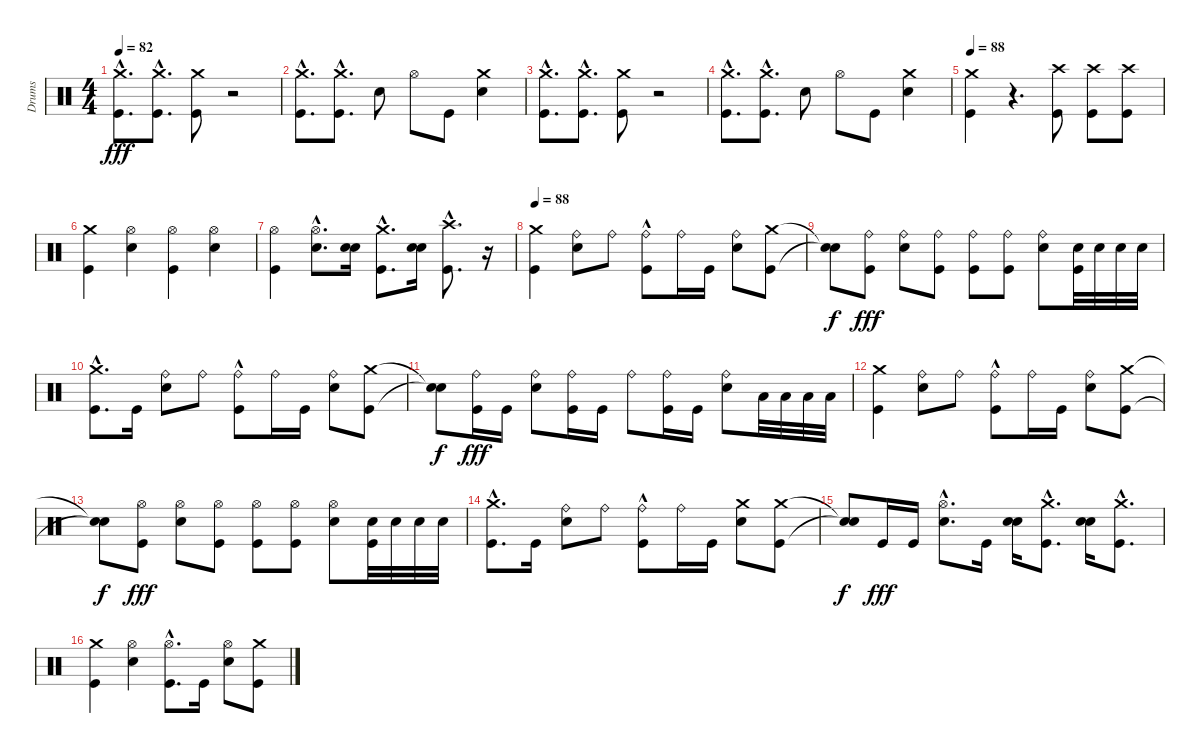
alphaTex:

\track ("Drums" "Drums") {instrument percussion}
\staff {score}
\articulation defaults
\ts (4 4)
\tempo 82
\clef neutral
\ks c
("Kick (hit)"{hac} "Crash medium (hit)"{hac}).8{d dy fff} ("Kick (hit)"{hac} "Crash medium (hit)"{hac}).8{d} ("Kick (hit)" "Crash medium (hit)").8 r.2 |
("Kick (hit)"{hac} "Crash medium (hit)"{hac}).8{d} ("Kick (hit)" "Crash medium (hit)"{hac}).8{d} "Electric Snare (hit)".8 "Hi-Hat (open)".8 "Kick (hit)".8 ("Crash medium (hit)" "Electric Snare (hit)").4 |
("Kick (hit)"{hac} "Crash medium (hit)"{hac}).8{d} ("Kick (hit)"{hac} "Crash medium (hit)"{hac}).8{d} ("Kick (hit)" "Crash medium (hit)").8 r.2 |
("Kick (hit)"{hac} "Crash medium (hit)"{hac}).8{d} ("Kick (hit)" "Crash medium (hit)"{hac}).8{d} "Electric Snare (hit)".8 "Hi-Hat (open)".8 "Kick (hit)".8 ("Crash medium (hit)" "Electric Snare (hit)").4 |
\tempo 88
("Kick (hit)" "Crash medium (hit)").4 r.4{d} ("Crash high (hit)" "Kick (hit)").8 ("Crash high (hit)" "Kick (hit)").8 ("Crash high (hit)" "Kick (hit)").8 |
("Kick (hit)" "Crash medium (hit)").4 ("Electric Snare (hit)" "Hi-Hat (open)").4 ("Kick (hit)" "Hi-Hat (open)").4 ("Electric Snare (hit)" "Hi-Hat (open)").4 |
("Hi-Hat (open)" "Kick (hit)").4 ("Hi-Hat (open)" "Electric Snare (hit)"{hac}).8{d} ("Electric Snare (hit)" "Electric Snare (hit)").16 ("Crash medium (hit)"{hac} "Kick (hit)"{hac}).8{d} ("Electric Snare (hit)" "Electric Snare (hit)").16 ("Crash high (hit)"{hac} "Kick (hit)"{hac}).8{d} r.16 |
\tempo 88
("Kick (hit)" "Crash medium (hit)").4 ("Electric Snare (hit)" "Ride (bell)").8 "Ride (bell)".8 ("Ride (bell)" "Kick (hit)"{hac}).8 "Ride (bell)".16 "Kick (hit)".16 ("Ride (bell)" "Electric Snare (hit)").8 ("Crash medium (hit)" "Kick (hit)").8 |
("Snare (hit)"{t} "Snare (hit)"{t}).8{dy f} ("Ride (bell)" "Kick (hit)").8{dy fff} ("Electric Snare (hit)" "Ride (bell)").8 ("Kick (hit)" "Ride (bell)").8 ("Ride (bell)" "Kick (hit)").8 ("Kick (hit)" "Ride (bell)").8 ("Electric Snare (hit)" "Ride (bell)").8 ("Electric Snare (hit)" "Kick (hit)").32 "Electric Snare (hit)".32 "Electric Snare (hit)".32 "Electric Snare (hit)".32 |
("Kick (hit)"{hac} "Crash medium (hit)").8{d} "Kick (hit)".16 ("Electric Snare (hit)" "Ride (bell)").8 "Ride (bell)".8 ("Ride (bell)" "Kick (hit)"{hac}).8 "Ride (bell)".16 "Kick (hit)".16 ("Ride (bell)" "Electric Snare (hit)").8 ("Crash medium (hit)" "Kick (hit)").8 |
("Snare (hit)"{t} "Snare (hit)"{t}).8{dy f} ("Kick (hit)" "Ride (bell)").16{dy fff} "Kick (hit)".16 ("Ride (bell)" "Electric Snare (hit)").8 ("Ride (bell)" "Kick (hit)").16 "Kick (hit)".16 "Ride (bell)".8 ("Kick (hit)" "Ride (bell)").16 "Kick (hit)".16 ("Ride (bell)" "Electric Snare (hit)").8 "Low Floor Tom (hit)".32 "Low Floor Tom (hit)".32 "Low Floor Tom (hit)".32 "Low Floor Tom (hit)".32 |
("Kick (hit)" "Crash medium (hit)").4 ("Electric Snare (hit)" "Ride (bell)").8 "Ride (bell)".8 ("Ride (bell)" "Kick (hit)"{hac}).8 "Ride (bell)".16 "Kick (hit)".16 ("Electric Snare (hit)" "Ride (bell)").8 ("Kick (hit)" "Crash medium (hit)").8 |
("Snare (hit)"{t} "Snare (hit)"{t}).8{dy f} ("Kick (hit)" "Hi-Hat (open)").8{dy fff} ("Hi-Hat (open)" "Electric Snare (hit)").8 ("Hi-Hat (open)" "Kick (hit)").8 ("Hi-Hat (open)" "Kick (hit)").8 ("Hi-Hat (open)" "Kick (hit)").8 ("Hi-Hat (open)" "Electric Snare (hit)").8 ("Electric Snare (hit)" "Kick (hit)").32 "Electric Snare (hit)".32 "Electric Snare (hit)".32 "Electric Snare (hit)".32 |
("Kick (hit)"{hac} "Crash medium (hit)").8{d} "Kick (hit)".16 ("Electric Snare (hit)" "Ride (bell)").8 "Ride (bell)".8 ("Ride (bell)" "Kick (hit)"{hac}).8 "Ride (bell)".16 "Kick (hit)".16 ("Electric Snare (hit)" "Crash medium (hit)").8 ("Kick (hit)" "Crash medium (hit)").8 |
("Snare (hit)"{t} "Snare (hit)"{t}).8{dy f} "Kick (hit)".16{dy fff} "Kick (hit)".16 ("Hi-Hat (open)" "Electric Snare (hit)"{hac}).8{d} "Kick (hit)".16 ("Electric Snare (hit)" "Electric Snare (hit)").16 ("Crash medium (hit)"{hac} "Kick (hit)"{hac}).8{d} ("Electric Snare (hit)" "Electric Snare (hit)").16 ("Crash medium (hit)"{hac} "Kick (hit)"{hac}).8{d} |
("Kick (hit)" "Crash medium (hit)").4 ("Electric Snare (hit)" "Hi-Hat (open)").4 ("Kick (hit)"{hac} "Hi-Hat (open)").8{d} "Kick (hit)".16 ("Electric Snare (hit)" "Hi-Hat (open)").8 ("Kick (hit)" "Crash medium (hit)").8
